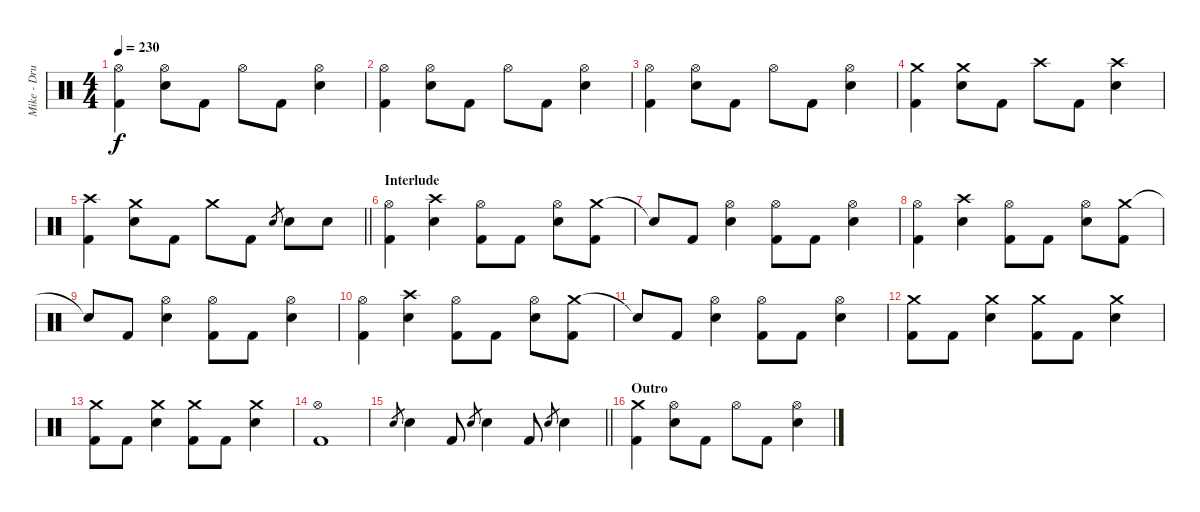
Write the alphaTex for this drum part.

\track ("Mike - Drums" "Mike - Dru") {instrument percussion}
\staff {score}
\articulation defaults
\ts (4 4)
\tempo 230
\clef neutral
\ks c
("Hi-Hat (open)" "Kick (hit) 2").4{dy f} ("Hi-Hat (open)" "Electric Snare (hit)").8 "Kick (hit) 2".8 "Hi-Hat (open)".8 "Kick (hit) 2".8 ("Hi-Hat (open)" "Electric Snare (hit)").4 |
("Hi-Hat (open)" "Kick (hit) 2").4 ("Hi-Hat (open)" "Electric Snare (hit)").8 "Kick (hit) 2".8 "Hi-Hat (open)".8 "Kick (hit) 2".8 ("Hi-Hat (open)" "Electric Snare (hit)").4 |
("Hi-Hat (open)" "Kick (hit) 2").4 ("Hi-Hat (open)" "Electric Snare (hit)").8 "Kick (hit) 2".8 "Hi-Hat (open)".8 "Kick (hit) 2".8 ("Hi-Hat (open)" "Electric Snare (hit)").4 |
("Crash medium (hit)" "Kick (hit) 2").4 ("Crash medium (hit)" "Electric Snare (hit)").8 "Kick (hit) 2".8 "Crash high (hit)".8 "Kick (hit) 2".8 ("Crash high (hit)" "Electric Snare (hit)").4 |
\barLineRight lightlight
("Crash high (hit)" "Kick (hit) 2").4 ("Crash medium (hit)" "Electric Snare (hit)").8 "Kick (hit) 2".8 "Crash medium (hit)".8 "Kick (hit) 2".8 "Electric Snare (hit)".8{gr} "Electric Snare (hit)".8 "Electric Snare (hit)".8 |
\section ("" "Interlude")
("Hi-Hat (open)" "Kick (hit) 2").4 ("Crash high (hit)" "Electric Snare (hit)").4 ("Hi-Hat (open)" "Kick (hit) 2").8 "Kick (hit) 2".8 ("Hi-Hat (open)" "Electric Snare (hit)").8 ("Crash medium (hit)" "Kick (hit) 2").8 |
"Snare (hit)"{t}.8 "Kick (hit) 2".8 ("Hi-Hat (open)" "Electric Snare (hit)").4 ("Hi-Hat (open)" "Kick (hit) 2").8 "Kick (hit) 2".8 ("Hi-Hat (open)" "Electric Snare (hit)").4 |
("Hi-Hat (open)" "Kick (hit) 2").4 ("Crash high (hit)" "Electric Snare (hit)").4 ("Hi-Hat (open)" "Kick (hit) 2").8 "Kick (hit) 2".8 ("Hi-Hat (open)" "Electric Snare (hit)").8 ("Crash medium (hit)" "Kick (hit) 2").8 |
"Snare (hit)"{t}.8 "Kick (hit) 2".8 ("Hi-Hat (open)" "Electric Snare (hit)").4 ("Hi-Hat (open)" "Kick (hit) 2").8 "Kick (hit) 2".8 ("Hi-Hat (open)" "Electric Snare (hit)").4 |
("Hi-Hat (open)" "Kick (hit) 2").4 ("Crash high (hit)" "Electric Snare (hit)").4 ("Hi-Hat (open)" "Kick (hit) 2").8 "Kick (hit) 2".8 ("Hi-Hat (open)" "Electric Snare (hit)").8 ("Crash medium (hit)" "Kick (hit) 2").8 |
"Snare (hit)"{t}.8 "Kick (hit) 2".8 ("Hi-Hat (open)" "Electric Snare (hit)").4 ("Hi-Hat (open)" "Kick (hit) 2").8 "Kick (hit) 2".8 ("Hi-Hat (open)" "Electric Snare (hit)").4 |
("Crash medium (hit)" "Kick (hit) 2").8 "Kick (hit) 2".8 ("Crash medium (hit)" "Electric Snare (hit)").4 ("Crash medium (hit)" "Kick (hit) 2").8 "Kick (hit) 2".8 ("Crash medium (hit)" "Electric Snare (hit)").4 |
("Crash medium (hit)" "Kick (hit) 2").8 "Kick (hit) 2".8 ("Crash medium (hit)" "Electric Snare (hit)").4 ("Crash medium (hit)" "Kick (hit) 2").8 "Kick (hit) 2".8 ("Crash medium (hit)" "Electric Snare (hit)").4 |
("Hi-Hat (open)" "Kick (hit) 2").1 |
\barLineRight lightlight "Electric Snare (hit)".8{gr} "Electric Snare (hit)".4 "Kick (hit) 2".8 "Electric Snare (hit)".8{gr} "Electric Snare (hit)".4 "Kick (hit) 2".8 "Electric Snare (hit)".8{gr} "Electric Snare (hit)".4
|
\section ("" "Outro")
("Crash medium (hit)" "Kick (hit) 2").4 ("Hi-Hat (open)" "Electric Snare (hit)").8 "Kick (hit) 2".8 "Hi-Hat (open)".8 "Kick (hit) 2".8 ("Hi-Hat (open)" "Electric Snare (hit)").4
